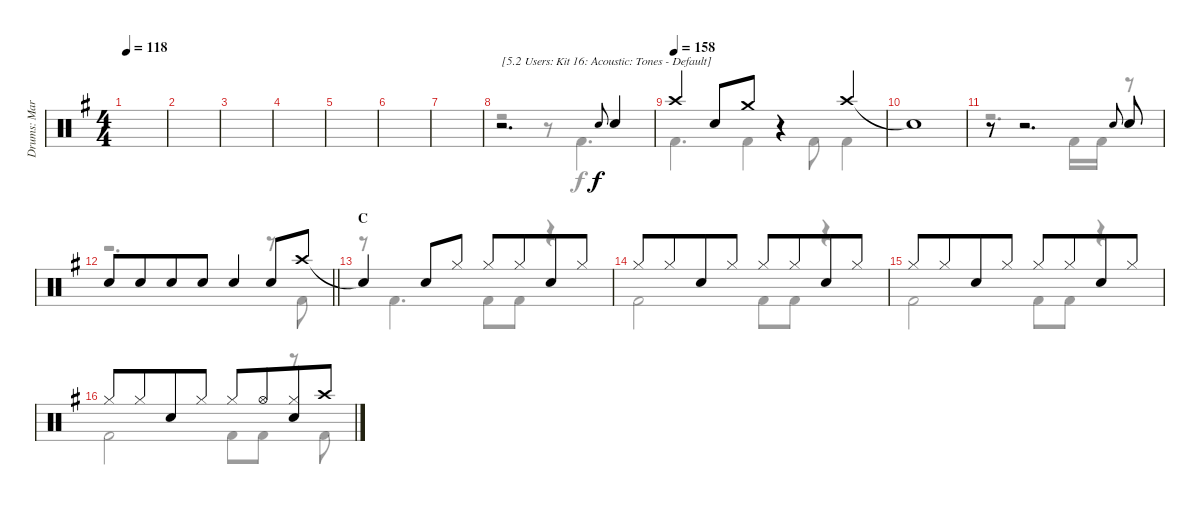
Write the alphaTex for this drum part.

\track ("Drums: Mark" "Drums: Mar") {instrument percussion}
\staff {score}
\articulation defaults
\voice
\ts (4 4)
\tempo 118
\clef neutral
\ks g
|
|
|
|
|
|
|
r.2{d txt "[5.2 Users: Kit 16: Acoustic: Tones - Default]"} "Electric Snare (hit)".8{gr onbeat} "Snare (hit) 2".4 |
\tempo (158)
"Crash high (hit)".4{dy f} "Snare (hit) 2".8 "Crash medium (hit)".8 r.4 "Crash high (hit)".4 |
"Snare (hit)"{t}.1 |
r.8 r.2{d} "Electric Snare (hit)".8{gr onbeat} "Snare (hit) 2".8 |
\barLineRight lightlight "Snare (hit) 2".8 "Snare (hit) 2".8{beam merge} "Snare (hit) 2".8 "Snare (hit) 2".8 "Snare (hit) 2".4 "Snare (hit) 2".8 "Crash high (hit)".8
|
\section ("" "C")
"Snare (hit)"{t}.4 "Snare (hit) 2".8 "Hi-Hat (closed)".8 "Hi-Hat (closed)".8 "Hi-Hat (closed)".8{beam merge} "Snare (hit) 2".8 "Hi-Hat (closed)".8 |
"Hi-Hat (closed)".8 "Hi-Hat (closed)".8{beam merge} "Snare (hit) 2".8 "Hi-Hat (closed)".8 "Hi-Hat (closed)".8 "Hi-Hat (closed)".8{beam merge} "Snare (hit) 2".8 "Hi-Hat (closed)".8 |
"Hi-Hat (closed)".8 "Hi-Hat (closed)".8{beam merge} "Snare (hit) 2".8 "Hi-Hat (closed)".8 "Hi-Hat (closed)".8 "Hi-Hat (closed)".8{beam merge} "Snare (hit) 2".8 "Hi-Hat (closed)".8 |
"Hi-Hat (closed)".8 "Hi-Hat (closed)".8{beam merge} "Snare (hit) 2".8 "Hi-Hat (closed)".8 "Hi-Hat (closed)".8 "Hi-Hat (open)".8{beam merge} ("Hi-Hat (closed)" "Snare (hit) 2").8 "Crash high (hit)".8
\voice
\clef neutral
\ottava regular
\simile none
\ks g
|
|
|
|
|
|
|
r.2 r.8 "Kick (hit) 2".4{d} |
"Kick (hit) 2".4{d dy f} "Kick (hit) 2".4 "Kick (hit) 2".8 "Kick (hit) 2".4 |
|
r.2{d} "Kick (hit) 2".16 "Kick (hit) 2".16 r.8 |
\barLineRight lightlight
r.2{d} r.8 "Kick (hit) 2".8 |
r.8 "Kick (hit) 2".4{d} "Kick (hit) 2".8 "Kick (hit) 2".8 r.4 |
"Kick (hit) 2".2 "Kick (hit) 2".8 "Kick (hit) 2".8 r.4 |
"Kick (hit) 2".2 "Kick (hit) 2".8 "Kick (hit) 2".8 r.4 |
"Kick (hit) 2".2 "Kick (hit) 2".8 "Kick (hit) 2".8 r.8 "Kick (hit) 2".8
